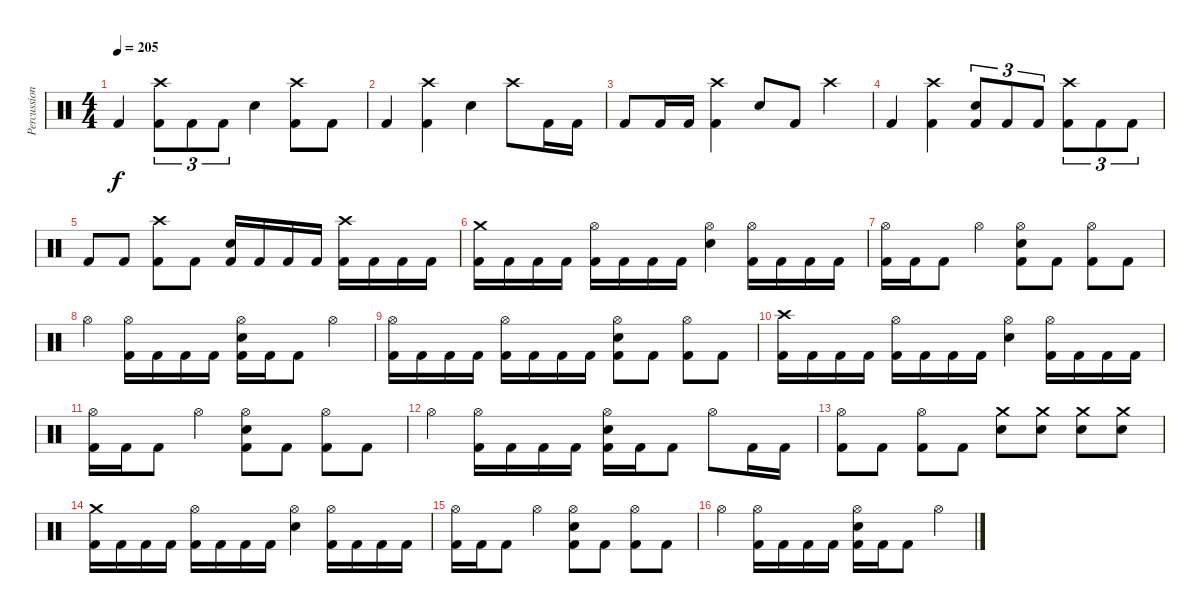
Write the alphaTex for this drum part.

\track ("Percussions" "Percussion") {instrument percussion}
\staff {score}
\articulation defaults
\ts (4 4)
\tempo 205
\clef neutral
\ks c "Kick (hit) 2".4{dy f}
("Crash high (hit)" "Kick (hit) 2").8{tu (3 2)} "Kick (hit) 2".8{tu (3 2)} "Kick (hit) 2".8{tu (3 2)} "Electric Snare (hit)".4 ("Crash high (hit)" "Kick (hit) 2").8 "Kick (hit) 2".8 |
"Kick (hit) 2".4 ("Crash high (hit)" "Kick (hit) 2").4 "Electric Snare (hit)".4 "Crash high (hit)".8 "Kick (hit) 2".16 "Kick (hit) 2".16 |
"Kick (hit) 2".8 "Kick (hit) 2".16 "Kick (hit) 2".16 ("Crash high (hit)" "Kick (hit) 2").4 "Electric Snare (hit)".8 "Kick (hit) 2".8 "Crash high (hit)".4 |
"Kick (hit) 2".4 ("Crash high (hit)" "Kick (hit) 2").4 ("Electric Snare (hit)" "Kick (hit) 2").8{tu (3 2)} "Kick (hit) 2".8{tu (3 2)} "Kick (hit) 2".8{tu (3 2)} ("Crash high (hit)" "Kick (hit) 2").8{tu (3 2)} "Kick (hit) 2".8{tu (3 2)} "Kick (hit) 2".8{tu (3 2)} |
"Kick (hit) 2".8 "Kick (hit) 2".8 ("Crash high (hit)" "Kick (hit) 2").8 "Kick (hit) 2".8 ("Electric Snare (hit)" "Kick (hit) 2").16 "Kick (hit) 2".16 "Kick (hit) 2".16 "Kick (hit) 2".16 ("Crash high (hit)" "Kick (hit) 2").16 "Kick (hit) 2".16 "Kick (hit) 2".16 "Kick (hit) 2".16 |
("Crash medium (hit)" "Kick (hit) 2").16 "Kick (hit) 2".16 "Kick (hit) 2".16 "Kick (hit) 2".16 ("Hi-Hat (open)" "Kick (hit) 2").16 "Kick (hit) 2".16 "Kick (hit) 2".16 "Kick (hit) 2".16 ("Hi-Hat (open)" "Electric Snare (hit)").4 ("Hi-Hat (open)" "Kick (hit) 2").16 "Kick (hit) 2".16 "Kick (hit) 2".16 "Kick (hit) 2".16 |
("Hi-Hat (open)" "Kick (hit) 2").16 "Kick (hit) 2".16 "Kick (hit) 2".8 "Hi-Hat (open)".4 ("Hi-Hat (open)" "Electric Snare (hit)" "Kick (hit) 2").8 "Kick (hit) 2".8 ("Hi-Hat (open)" "Kick (hit) 2").8 "Kick (hit) 2".8 |
"Hi-Hat (open)".4 ("Hi-Hat (open)" "Kick (hit) 2").16 "Kick (hit) 2".16 "Kick (hit) 2".16 "Kick (hit) 2".16 ("Hi-Hat (open)" "Electric Snare (hit)" "Kick (hit) 2").16 "Kick (hit) 2".16 "Kick (hit) 2".8 "Hi-Hat (open)".4 |
("Hi-Hat (open)" "Kick (hit) 2").16 "Kick (hit) 2".16 "Kick (hit) 2".16 "Kick (hit) 2".16 ("Hi-Hat (open)" "Kick (hit) 2").16 "Kick (hit) 2".16 "Kick (hit) 2".16 "Kick (hit) 2".16 ("Hi-Hat (open)" "Electric Snare (hit)" "Kick (hit) 2").8 "Kick (hit) 2".8 ("Hi-Hat (open)" "Kick (hit) 2").8 "Kick (hit) 2".8 |
("Crash high (hit)" "Kick (hit) 2").16 "Kick (hit) 2".16 "Kick (hit) 2".16 "Kick (hit) 2".16 ("Hi-Hat (open)" "Kick (hit) 2").16 "Kick (hit) 2".16 "Kick (hit) 2".16 "Kick (hit) 2".16 ("Hi-Hat (open)" "Electric Snare (hit)").4 ("Hi-Hat (open)" "Kick (hit) 2").16 "Kick (hit) 2".16 "Kick (hit) 2".16 "Kick (hit) 2".16 |
("Hi-Hat (open)" "Kick (hit) 2").16 "Kick (hit) 2".16 "Kick (hit) 2".8 "Hi-Hat (open)".4 ("Hi-Hat (open)" "Electric Snare (hit)" "Kick (hit) 2").8 "Kick (hit) 2".8 ("Hi-Hat (open)" "Kick (hit) 2").8 "Kick (hit) 2".8 |
"Hi-Hat (open)".4 ("Hi-Hat (open)" "Kick (hit) 2").16 "Kick (hit) 2".16 "Kick (hit) 2".16 "Kick (hit) 2".16 ("Hi-Hat (open)" "Electric Snare (hit)" "Kick (hit) 2").16 "Kick (hit) 2".16 "Kick (hit) 2".8 "Hi-Hat (open)".8 "Kick (hit) 2".16 "Kick (hit) 2".16 |
("Hi-Hat (open)" "Kick (hit) 2").8 "Kick (hit) 2".8 ("Hi-Hat (open)" "Kick (hit) 2").8 "Kick (hit) 2".8 ("Crash medium (hit)" "Electric Snare (hit)").8 ("Crash medium (hit)" "Electric Snare (hit)").8 ("Crash medium (hit)" "Electric Snare (hit)").8 ("Crash medium (hit)" "Electric Snare (hit)").8 |
("Crash medium (hit)" "Kick (hit) 2").16 "Kick (hit) 2".16 "Kick (hit) 2".16 "Kick (hit) 2".16 ("Hi-Hat (open)" "Kick (hit) 2").16 "Kick (hit) 2".16 "Kick (hit) 2".16 "Kick (hit) 2".16 ("Hi-Hat (open)" "Electric Snare (hit)").4 ("Hi-Hat (open)" "Kick (hit) 2").16 "Kick (hit) 2".16 "Kick (hit) 2".16 "Kick (hit) 2".16 |
("Hi-Hat (open)" "Kick (hit) 2").16 "Kick (hit) 2".16 "Kick (hit) 2".8 "Hi-Hat (open)".4 ("Hi-Hat (open)" "Electric Snare (hit)" "Kick (hit) 2").8 "Kick (hit) 2".8 ("Hi-Hat (open)" "Kick (hit) 2").8 "Kick (hit) 2".8 |
"Hi-Hat (open)".4 ("Hi-Hat (open)" "Kick (hit) 2").16 "Kick (hit) 2".16 "Kick (hit) 2".16 "Kick (hit) 2".16 ("Hi-Hat (open)" "Electric Snare (hit)" "Kick (hit) 2").16 "Kick (hit) 2".16 "Kick (hit) 2".8 "Hi-Hat (open)".4
